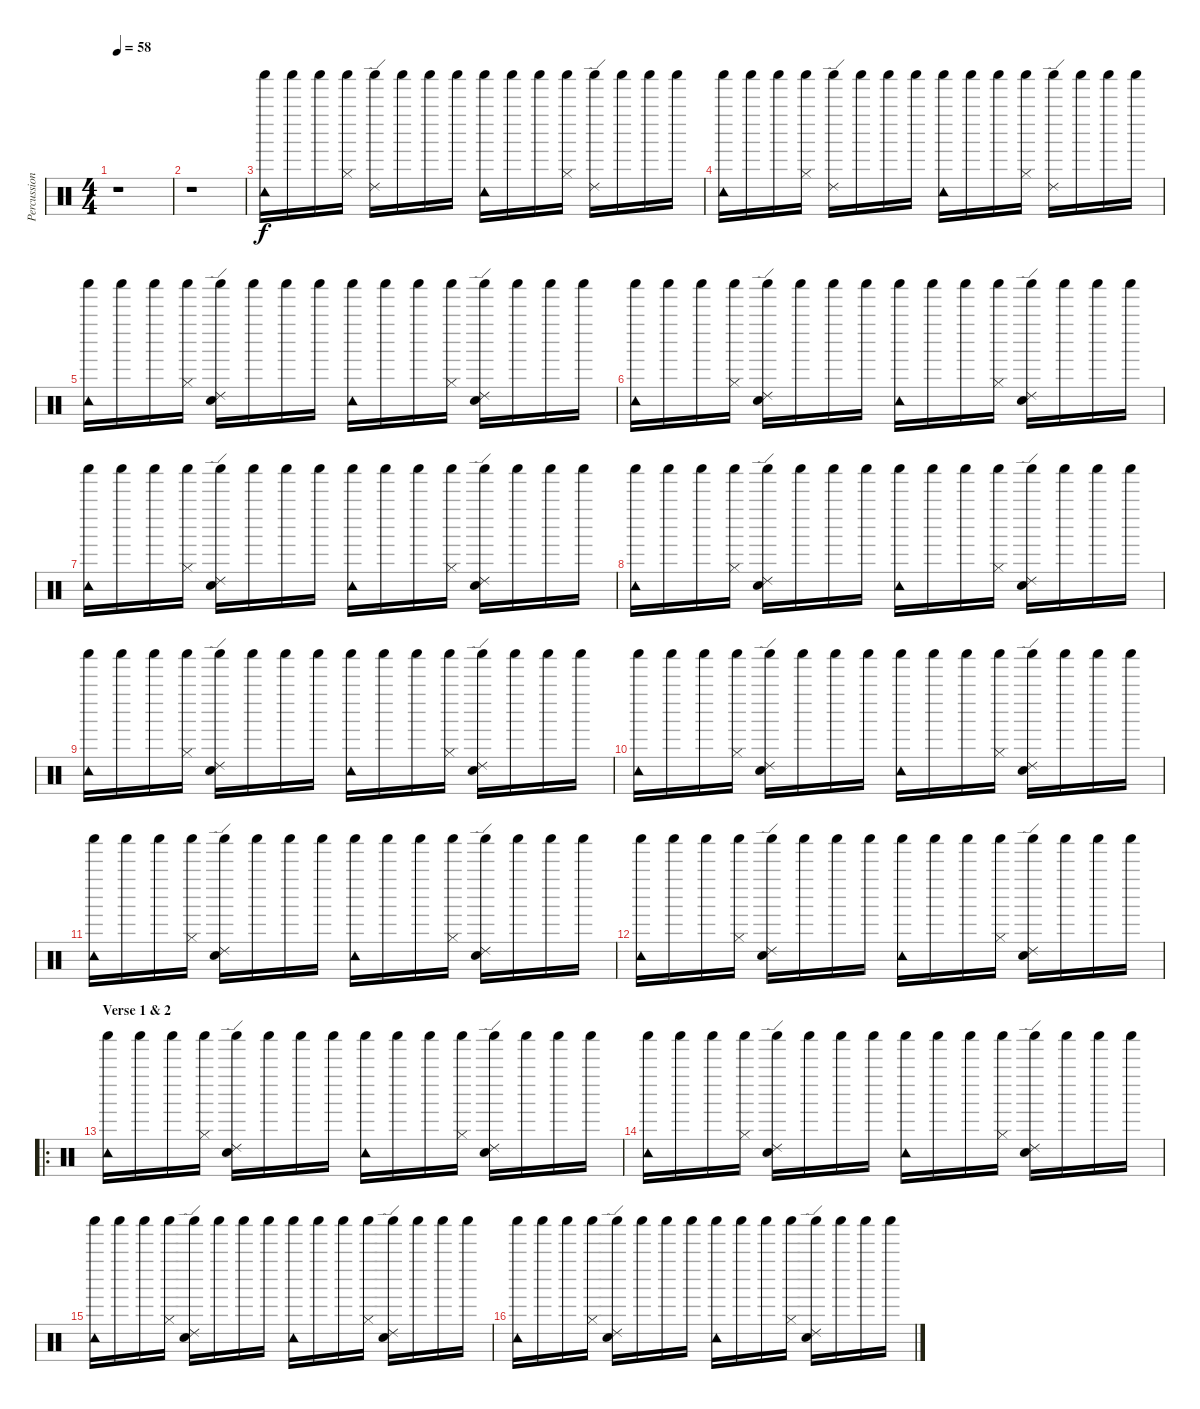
\track ("Percussion" "Percussion") {instrument percussion}
\staff {score}
\articulation defaults
\ts (4 4)
\tempo 58
\clef neutral
\ks c
r.1{dy f} |
r.1 |
("Shaker (hit)" "Tambourine (hit)").16 "Shaker (hit)".16 "Shaker (hit)".16 ("Shaker (hit)" "Hi-Hat (closed)").16 ("Shaker (hit)" "Ride (edge) 2").16 "Shaker (hit)".16 "Shaker (hit)".16 "Shaker (hit)".16 ("Shaker (hit)" "Tambourine (hit)").16 "Shaker (hit)".16 "Shaker (hit)".16 ("Shaker (hit)" "Hi-Hat (closed)").16 ("Shaker (hit)" "Ride (edge) 2").16 "Shaker (hit)".16 "Shaker (hit)".16 "Shaker (hit)".16 |
("Shaker (hit)" "Tambourine (hit)").16 "Shaker (hit)".16 "Shaker (hit)".16 ("Shaker (hit)" "Hi-Hat (closed)").16 ("Shaker (hit)" "Ride (edge) 2").16 "Shaker (hit)".16 "Shaker (hit)".16 "Shaker (hit)".16 ("Shaker (hit)" "Tambourine (hit)").16 "Shaker (hit)".16 "Shaker (hit)".16 ("Shaker (hit)" "Hi-Hat (closed)").16 ("Shaker (hit)" "Ride (edge) 2").16 "Shaker (hit)".16 "Shaker (hit)".16 "Shaker (hit)".16 |
("Shaker (hit)" "Tambourine (hit)").16 "Shaker (hit)".16 "Shaker (hit)".16 ("Shaker (hit)" "Hi-Hat (closed)").16 ("Shaker (hit)" "Ride (edge) 2" "Snare (hit) 2").16 "Shaker (hit)".16 "Shaker (hit)".16 "Shaker (hit)".16 ("Shaker (hit)" "Tambourine (hit)").16 "Shaker (hit)".16 "Shaker (hit)".16 ("Shaker (hit)" "Hi-Hat (closed)").16 ("Shaker (hit)" "Ride (edge) 2" "Snare (hit) 2").16 "Shaker (hit)".16 "Shaker (hit)".16 "Shaker (hit)".16 |
("Shaker (hit)" "Tambourine (hit)").16 "Shaker (hit)".16 "Shaker (hit)".16 ("Shaker (hit)" "Hi-Hat (closed)").16 ("Shaker (hit)" "Ride (edge) 2" "Snare (hit) 2").16 "Shaker (hit)".16 "Shaker (hit)".16 "Shaker (hit)".16 ("Shaker (hit)" "Tambourine (hit)").16 "Shaker (hit)".16 "Shaker (hit)".16 ("Shaker (hit)" "Hi-Hat (closed)").16 ("Shaker (hit)" "Ride (edge) 2" "Snare (hit) 2").16 "Shaker (hit)".16 "Shaker (hit)".16 "Shaker (hit)".16 |
("Shaker (hit)" "Tambourine (hit)").16 "Shaker (hit)".16 "Shaker (hit)".16 ("Shaker (hit)" "Hi-Hat (closed)").16 ("Shaker (hit)" "Ride (edge) 2" "Snare (hit) 2").16 "Shaker (hit)".16 "Shaker (hit)".16 "Shaker (hit)".16 ("Shaker (hit)" "Tambourine (hit)").16 "Shaker (hit)".16 "Shaker (hit)".16 ("Shaker (hit)" "Hi-Hat (closed)").16 ("Shaker (hit)" "Ride (edge) 2" "Snare (hit) 2").16 "Shaker (hit)".16 "Shaker (hit)".16 "Shaker (hit)".16 |
("Shaker (hit)" "Tambourine (hit)").16 "Shaker (hit)".16 "Shaker (hit)".16 ("Shaker (hit)" "Hi-Hat (closed)").16 ("Shaker (hit)" "Ride (edge) 2" "Snare (hit) 2").16 "Shaker (hit)".16 "Shaker (hit)".16 "Shaker (hit)".16 ("Shaker (hit)" "Tambourine (hit)").16 "Shaker (hit)".16 "Shaker (hit)".16 ("Shaker (hit)" "Hi-Hat (closed)").16 ("Shaker (hit)" "Ride (edge) 2" "Snare (hit) 2").16 "Shaker (hit)".16 "Shaker (hit)".16 "Shaker (hit)".16 |
("Shaker (hit)" "Tambourine (hit)").16 "Shaker (hit)".16 "Shaker (hit)".16 ("Shaker (hit)" "Hi-Hat (closed)").16 ("Shaker (hit)" "Ride (edge) 2" "Snare (hit) 2").16 "Shaker (hit)".16 "Shaker (hit)".16 "Shaker (hit)".16 ("Shaker (hit)" "Tambourine (hit)").16 "Shaker (hit)".16 "Shaker (hit)".16 ("Shaker (hit)" "Hi-Hat (closed)").16 ("Shaker (hit)" "Ride (edge) 2" "Snare (hit) 2").16 "Shaker (hit)".16 "Shaker (hit)".16 "Shaker (hit)".16 |
("Shaker (hit)" "Tambourine (hit)").16 "Shaker (hit)".16 "Shaker (hit)".16 ("Shaker (hit)" "Hi-Hat (closed)").16 ("Shaker (hit)" "Ride (edge) 2" "Snare (hit) 2").16 "Shaker (hit)".16 "Shaker (hit)".16 "Shaker (hit)".16 ("Shaker (hit)" "Tambourine (hit)").16 "Shaker (hit)".16 "Shaker (hit)".16 ("Shaker (hit)" "Hi-Hat (closed)").16 ("Shaker (hit)" "Ride (edge) 2" "Snare (hit) 2").16 "Shaker (hit)".16 "Shaker (hit)".16 "Shaker (hit)".16 |
("Shaker (hit)" "Tambourine (hit)").16 "Shaker (hit)".16 "Shaker (hit)".16 ("Shaker (hit)" "Hi-Hat (closed)").16 ("Shaker (hit)" "Ride (edge) 2" "Snare (hit) 2").16 "Shaker (hit)".16 "Shaker (hit)".16 "Shaker (hit)".16 ("Shaker (hit)" "Tambourine (hit)").16 "Shaker (hit)".16 "Shaker (hit)".16 ("Shaker (hit)" "Hi-Hat (closed)").16 ("Shaker (hit)" "Ride (edge) 2" "Snare (hit) 2").16 "Shaker (hit)".16 "Shaker (hit)".16 "Shaker (hit)".16 |
("Shaker (hit)" "Tambourine (hit)").16 "Shaker (hit)".16 "Shaker (hit)".16 ("Shaker (hit)" "Hi-Hat (closed)").16 ("Shaker (hit)" "Ride (edge) 2" "Snare (hit) 2").16 "Shaker (hit)".16 "Shaker (hit)".16 "Shaker (hit)".16 ("Shaker (hit)" "Tambourine (hit)").16 "Shaker (hit)".16 "Shaker (hit)".16 ("Shaker (hit)" "Hi-Hat (closed)").16 ("Shaker (hit)" "Ride (edge) 2" "Snare (hit) 2").16 "Shaker (hit)".16 "Shaker (hit)".16 "Shaker (hit)".16 |
\ro
\section ("" "Verse 1 & 2")
("Shaker (hit)" "Tambourine (hit)").16 "Shaker (hit)".16 "Shaker (hit)".16 ("Shaker (hit)" "Hi-Hat (closed)").16 ("Shaker (hit)" "Ride (edge) 2" "Snare (hit) 2").16 "Shaker (hit)".16 "Shaker (hit)".16 "Shaker (hit)".16 ("Shaker (hit)" "Tambourine (hit)").16 "Shaker (hit)".16 "Shaker (hit)".16 ("Shaker (hit)" "Hi-Hat (closed)").16 ("Shaker (hit)" "Ride (edge) 2" "Snare (hit) 2").16 "Shaker (hit)".16 "Shaker (hit)".16 "Shaker (hit)".16 |
("Shaker (hit)" "Tambourine (hit)").16 "Shaker (hit)".16 "Shaker (hit)".16 ("Shaker (hit)" "Hi-Hat (closed)").16 ("Shaker (hit)" "Ride (edge) 2" "Snare (hit) 2").16 "Shaker (hit)".16 "Shaker (hit)".16 "Shaker (hit)".16 ("Shaker (hit)" "Tambourine (hit)").16 "Shaker (hit)".16 "Shaker (hit)".16 ("Shaker (hit)" "Hi-Hat (closed)").16 ("Shaker (hit)" "Ride (edge) 2" "Snare (hit) 2").16 "Shaker (hit)".16 "Shaker (hit)".16 "Shaker (hit)".16 |
("Shaker (hit)" "Tambourine (hit)").16 "Shaker (hit)".16 "Shaker (hit)".16 ("Shaker (hit)" "Hi-Hat (closed)").16 ("Shaker (hit)" "Ride (edge) 2" "Snare (hit) 2").16 "Shaker (hit)".16 "Shaker (hit)".16 "Shaker (hit)".16 ("Shaker (hit)" "Tambourine (hit)").16 "Shaker (hit)".16 "Shaker (hit)".16 ("Shaker (hit)" "Hi-Hat (closed)").16 ("Shaker (hit)" "Ride (edge) 2" "Snare (hit) 2").16 "Shaker (hit)".16 "Shaker (hit)".16 "Shaker (hit)".16 |
("Shaker (hit)" "Tambourine (hit)").16 "Shaker (hit)".16 "Shaker (hit)".16 ("Shaker (hit)" "Hi-Hat (closed)").16 ("Shaker (hit)" "Ride (edge) 2" "Snare (hit) 2").16 "Shaker (hit)".16 "Shaker (hit)".16 "Shaker (hit)".16 ("Shaker (hit)" "Tambourine (hit)").16 "Shaker (hit)".16 "Shaker (hit)".16 ("Shaker (hit)" "Hi-Hat (closed)").16 ("Shaker (hit)" "Ride (edge) 2" "Snare (hit) 2").16 "Shaker (hit)".16 "Shaker (hit)".16 "Shaker (hit)".16
